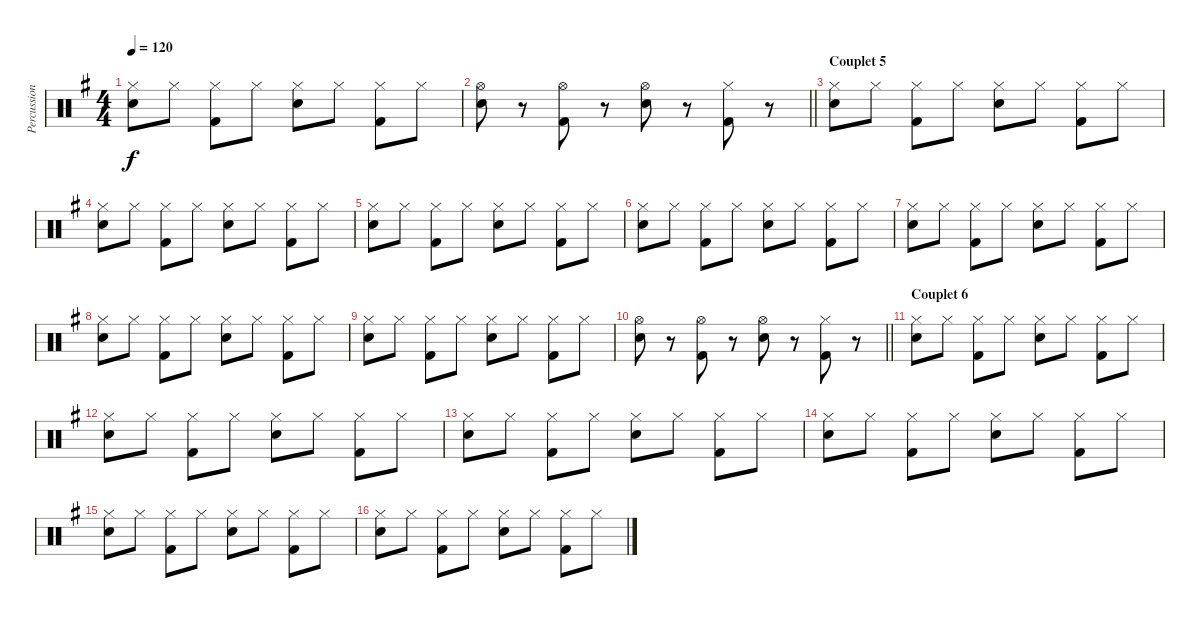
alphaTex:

\track ("Percussions" "Percussion") {instrument percussion}
\staff {score}
\articulation defaults
\ts (4 4)
\tempo 120
\clef neutral
\ks g
("Hi-Hat (closed)" "Snare (hit) 2").8{dy f} "Hi-Hat (closed)".8 ("Hi-Hat (closed)" "Kick (hit) 2").8 "Hi-Hat (closed)".8 ("Hi-Hat (closed)" "Snare (hit) 2").8 "Hi-Hat (closed)".8 ("Hi-Hat (closed)" "Kick (hit) 2").8 "Hi-Hat (closed)".8 |
\barLineRight lightlight
("Hi-Hat (open)" "Snare (hit) 2").8 r.8 ("Hi-Hat (open)" "Kick (hit) 2").8 r.8 ("Hi-Hat (open)" "Snare (hit) 2").8 r.8 ("Hi-Hat (closed)" "Kick (hit) 2").8 r.8 |
\section ("" "Couplet 5")
("Hi-Hat (closed)" "Snare (hit) 2").8 "Hi-Hat (closed)".8 ("Hi-Hat (closed)" "Kick (hit) 2").8 "Hi-Hat (closed)".8 ("Hi-Hat (closed)" "Snare (hit) 2").8 "Hi-Hat (closed)".8 ("Hi-Hat (closed)" "Kick (hit) 2").8 "Hi-Hat (closed)".8 |
("Hi-Hat (closed)" "Snare (hit) 2").8 "Hi-Hat (closed)".8 ("Hi-Hat (closed)" "Kick (hit) 2").8 "Hi-Hat (closed)".8 ("Hi-Hat (closed)" "Snare (hit) 2").8 "Hi-Hat (closed)".8 ("Hi-Hat (closed)" "Kick (hit) 2").8 "Hi-Hat (closed)".8 |
("Hi-Hat (closed)" "Snare (hit) 2").8 "Hi-Hat (closed)".8 ("Hi-Hat (closed)" "Kick (hit) 2").8 "Hi-Hat (closed)".8 ("Hi-Hat (closed)" "Snare (hit) 2").8 "Hi-Hat (closed)".8 ("Hi-Hat (closed)" "Kick (hit) 2").8 "Hi-Hat (closed)".8 |
("Hi-Hat (closed)" "Snare (hit) 2").8 "Hi-Hat (closed)".8 ("Hi-Hat (closed)" "Kick (hit) 2").8 "Hi-Hat (closed)".8 ("Hi-Hat (closed)" "Snare (hit) 2").8 "Hi-Hat (closed)".8 ("Hi-Hat (closed)" "Kick (hit) 2").8 "Hi-Hat (closed)".8 |
("Hi-Hat (closed)" "Snare (hit) 2").8 "Hi-Hat (closed)".8 ("Hi-Hat (closed)" "Kick (hit) 2").8 "Hi-Hat (closed)".8 ("Hi-Hat (closed)" "Snare (hit) 2").8 "Hi-Hat (closed)".8 ("Hi-Hat (closed)" "Kick (hit) 2").8 "Hi-Hat (closed)".8 |
("Hi-Hat (closed)" "Snare (hit) 2").8 "Hi-Hat (closed)".8 ("Hi-Hat (closed)" "Kick (hit) 2").8 "Hi-Hat (closed)".8 ("Hi-Hat (closed)" "Snare (hit) 2").8 "Hi-Hat (closed)".8 ("Hi-Hat (closed)" "Kick (hit) 2").8 "Hi-Hat (closed)".8 |
("Hi-Hat (closed)" "Snare (hit) 2").8 "Hi-Hat (closed)".8 ("Hi-Hat (closed)" "Kick (hit) 2").8 "Hi-Hat (closed)".8 ("Hi-Hat (closed)" "Snare (hit) 2").8 "Hi-Hat (closed)".8 ("Hi-Hat (closed)" "Kick (hit) 2").8 "Hi-Hat (closed)".8 |
\barLineRight lightlight
("Hi-Hat (open)" "Snare (hit) 2").8 r.8 ("Hi-Hat (open)" "Kick (hit) 2").8 r.8 ("Hi-Hat (open)" "Snare (hit) 2").8 r.8 ("Hi-Hat (closed)" "Kick (hit) 2").8 r.8 |
\section ("" "Couplet 6")
("Hi-Hat (closed)" "Snare (hit) 2").8 "Hi-Hat (closed)".8 ("Hi-Hat (closed)" "Kick (hit) 2").8 "Hi-Hat (closed)".8 ("Hi-Hat (closed)" "Snare (hit) 2").8 "Hi-Hat (closed)".8 ("Hi-Hat (closed)" "Kick (hit) 2").8 "Hi-Hat (closed)".8 |
("Hi-Hat (closed)" "Snare (hit) 2").8 "Hi-Hat (closed)".8 ("Hi-Hat (closed)" "Kick (hit) 2").8 "Hi-Hat (closed)".8 ("Hi-Hat (closed)" "Snare (hit) 2").8 "Hi-Hat (closed)".8 ("Hi-Hat (closed)" "Kick (hit) 2").8 "Hi-Hat (closed)".8 |
("Hi-Hat (closed)" "Snare (hit) 2").8 "Hi-Hat (closed)".8 ("Hi-Hat (closed)" "Kick (hit) 2").8 "Hi-Hat (closed)".8 ("Hi-Hat (closed)" "Snare (hit) 2").8 "Hi-Hat (closed)".8 ("Hi-Hat (closed)" "Kick (hit) 2").8 "Hi-Hat (closed)".8 |
("Hi-Hat (closed)" "Snare (hit) 2").8 "Hi-Hat (closed)".8 ("Hi-Hat (closed)" "Kick (hit) 2").8 "Hi-Hat (closed)".8 ("Hi-Hat (closed)" "Snare (hit) 2").8 "Hi-Hat (closed)".8 ("Hi-Hat (closed)" "Kick (hit) 2").8 "Hi-Hat (closed)".8 |
("Hi-Hat (closed)" "Snare (hit) 2").8 "Hi-Hat (closed)".8 ("Hi-Hat (closed)" "Kick (hit) 2").8 "Hi-Hat (closed)".8 ("Hi-Hat (closed)" "Snare (hit) 2").8 "Hi-Hat (closed)".8 ("Hi-Hat (closed)" "Kick (hit) 2").8 "Hi-Hat (closed)".8 |
("Hi-Hat (closed)" "Snare (hit) 2").8 "Hi-Hat (closed)".8 ("Hi-Hat (closed)" "Kick (hit) 2").8 "Hi-Hat (closed)".8 ("Hi-Hat (closed)" "Snare (hit) 2").8 "Hi-Hat (closed)".8 ("Hi-Hat (closed)" "Kick (hit) 2").8 "Hi-Hat (closed)".8
